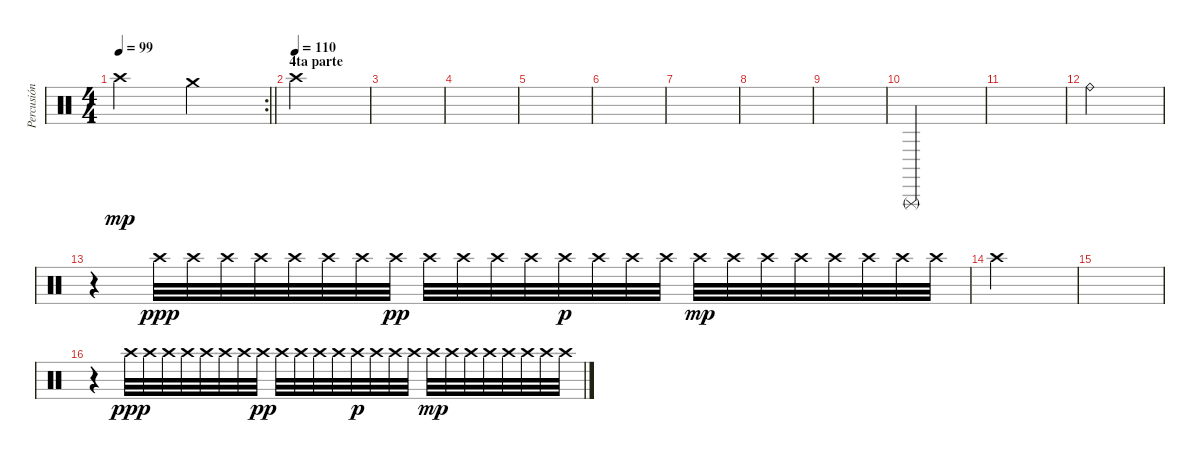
\track ("Percusión" "Percusión") {instrument percussion}
\staff {score}
\articulation defaults
\rc 2
\ts (4 4)
\tempo 99
\clef neutral
\barLineRight lightlight
\ks c "Crash high (hit)".2{dy mp} "Crash medium (hit)".2
|
\section ("" "4ta parte")
\tempo (110)
"Crash high (hit)".2 |
|
|
|
|
|
|
|
"Triangle (rnute)".2 |
|
"Ride (bell)".2 |
r.4 "Crash high (hit)".32{dy ppp} "Crash high (hit)".32 "Crash high (hit)".32 "Crash high (hit)".32 "Crash high (hit)".32 "Crash high (hit)".32 "Crash high (hit)".32 "Crash high (hit)".32{dy pp} "Crash high (hit)".32 "Crash high (hit)".32 "Crash high (hit)".32 "Crash high (hit)".32 "Crash high (hit)".32{dy p} "Crash high (hit)".32 "Crash high (hit)".32 "Crash high (hit)".32 "Crash high (hit)".32{dy mp} "Crash high (hit)".32 "Crash high (hit)".32 "Crash high (hit)".32 "Crash high (hit)".32 "Crash high (hit)".32 "Crash high (hit)".32 "Crash high (hit)".32 |
"Crash high (hit)".2 |
|
r.4 "Crash high (hit)".32{dy ppp} "Crash high (hit)".32 "Crash high (hit)".32 "Crash high (hit)".32 "Crash high (hit)".32 "Crash high (hit)".32 "Crash high (hit)".32 "Crash high (hit)".32{dy pp} "Crash high (hit)".32 "Crash high (hit)".32 "Crash high (hit)".32 "Crash high (hit)".32 "Crash high (hit)".32{dy p} "Crash high (hit)".32 "Crash high (hit)".32 "Crash high (hit)".32 "Crash high (hit)".32{dy mp} "Crash high (hit)".32 "Crash high (hit)".32 "Crash high (hit)".32 "Crash high (hit)".32 "Crash high (hit)".32 "Crash high (hit)".32 "Crash high (hit)".32
